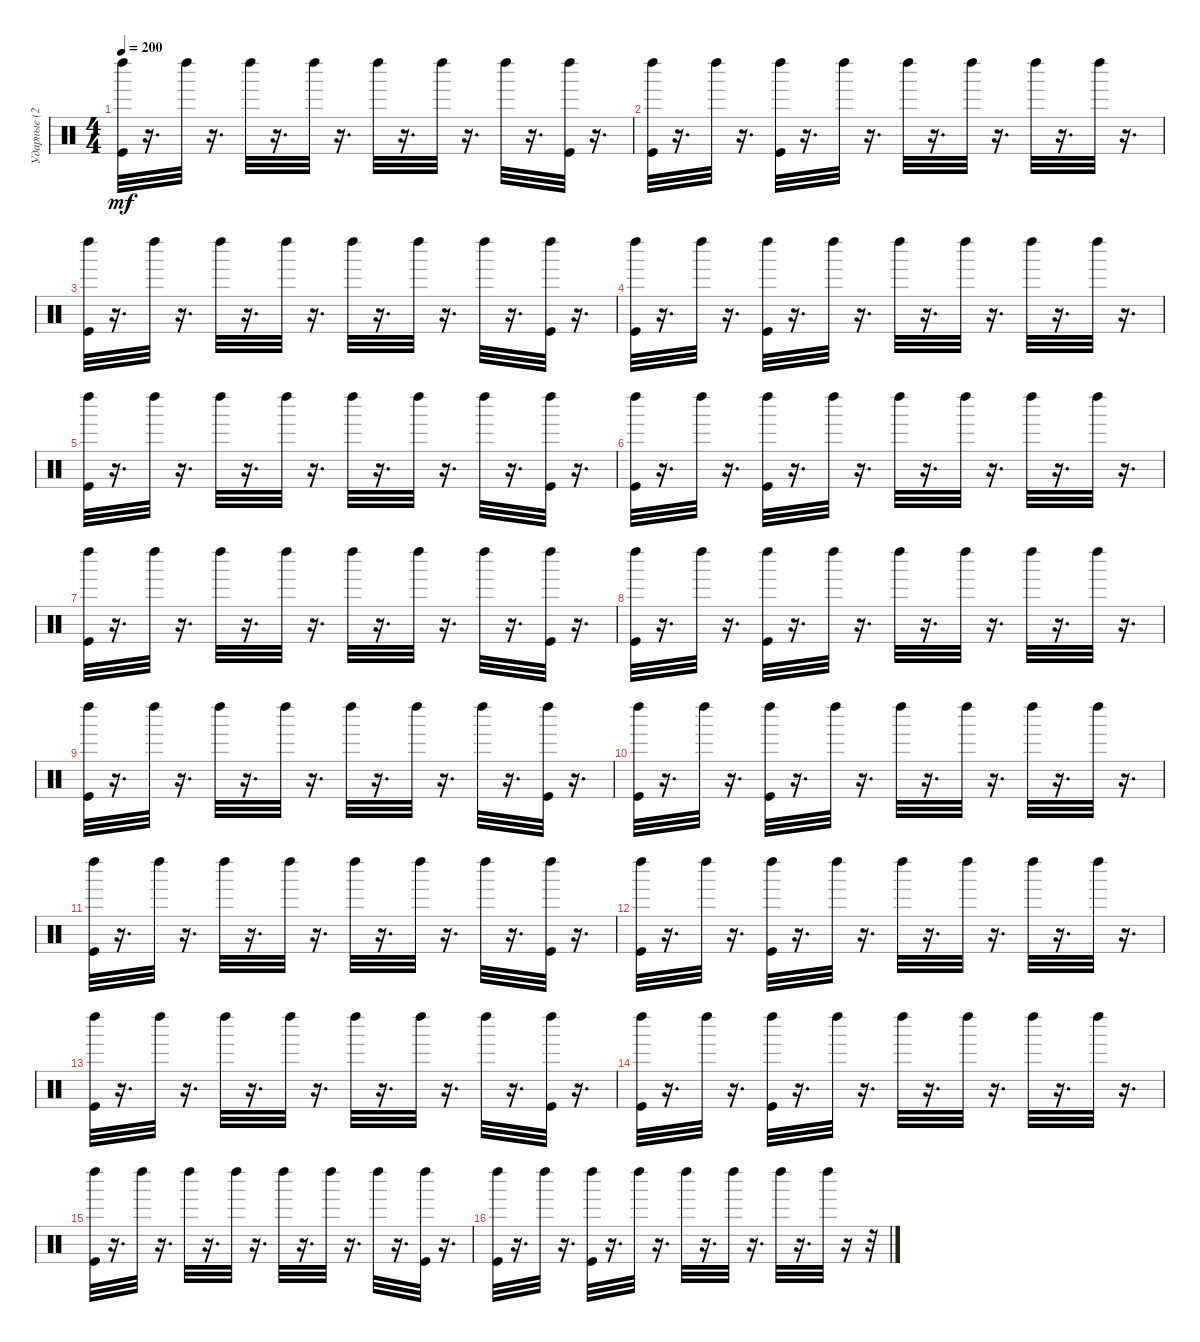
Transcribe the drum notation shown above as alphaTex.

\track ("Ударные (2)" "Ударные (2") {instrument percussion}
\staff {score}
\articulation defaults
\ts (4 4)
\tempo 200
\clef neutral
\ks c
("Kick (hit)" "Left Maraca (hit)").32{dy mf} r.16{d} "Left Maraca (hit)".32 r.16{d} "Left Maraca (hit)".32 r.16{d} "Left Maraca (hit)".32 r.16{d} "Left Maraca (hit)".32 r.16{d} "Left Maraca (hit)".32 r.16{d} "Left Maraca (hit)".32 r.16{d} ("Kick (hit)" "Left Maraca (hit)").32 r.16{d} |
("Kick (hit)" "Left Maraca (hit)").32 r.16{d} "Left Maraca (hit)".32 r.16{d} ("Kick (hit)" "Left Maraca (hit)").32 r.16{d} "Left Maraca (hit)".32 r.16{d} "Left Maraca (hit)".32 r.16{d} "Left Maraca (hit)".32 r.16{d} "Left Maraca (hit)".32 r.16{d} "Left Maraca (hit)".32 r.16{d} |
("Kick (hit)" "Left Maraca (hit)").32 r.16{d} "Left Maraca (hit)".32 r.16{d} "Left Maraca (hit)".32 r.16{d} "Left Maraca (hit)".32 r.16{d} "Left Maraca (hit)".32 r.16{d} "Left Maraca (hit)".32 r.16{d} "Left Maraca (hit)".32 r.16{d} ("Kick (hit)" "Left Maraca (hit)").32 r.16{d} |
("Kick (hit)" "Left Maraca (hit)").32 r.16{d} "Left Maraca (hit)".32 r.16{d} ("Kick (hit)" "Left Maraca (hit)").32 r.16{d} "Left Maraca (hit)".32 r.16{d} "Left Maraca (hit)".32 r.16{d} "Left Maraca (hit)".32 r.16{d} "Left Maraca (hit)".32 r.16{d} "Left Maraca (hit)".32 r.16{d} |
("Kick (hit)" "Left Maraca (hit)").32 r.16{d} "Left Maraca (hit)".32 r.16{d} "Left Maraca (hit)".32 r.16{d} "Left Maraca (hit)".32 r.16{d} "Left Maraca (hit)".32 r.16{d} "Left Maraca (hit)".32 r.16{d} "Left Maraca (hit)".32 r.16{d} ("Kick (hit)" "Left Maraca (hit)").32 r.16{d} |
("Kick (hit)" "Left Maraca (hit)").32 r.16{d} "Left Maraca (hit)".32 r.16{d} ("Kick (hit)" "Left Maraca (hit)").32 r.16{d} "Left Maraca (hit)".32 r.16{d} "Left Maraca (hit)".32 r.16{d} "Left Maraca (hit)".32 r.16{d} "Left Maraca (hit)".32 r.16{d} "Left Maraca (hit)".32 r.16{d} |
("Kick (hit)" "Left Maraca (hit)").32 r.16{d} "Left Maraca (hit)".32 r.16{d} "Left Maraca (hit)".32 r.16{d} "Left Maraca (hit)".32 r.16{d} "Left Maraca (hit)".32 r.16{d} "Left Maraca (hit)".32 r.16{d} "Left Maraca (hit)".32 r.16{d} ("Kick (hit)" "Left Maraca (hit)").32 r.16{d} |
("Kick (hit)" "Left Maraca (hit)").32 r.16{d} "Left Maraca (hit)".32 r.16{d} ("Kick (hit)" "Left Maraca (hit)").32 r.16{d} "Left Maraca (hit)".32 r.16{d} "Left Maraca (hit)".32 r.16{d} "Left Maraca (hit)".32 r.16{d} "Left Maraca (hit)".32 r.16{d} "Left Maraca (hit)".32 r.16{d} |
("Kick (hit)" "Left Maraca (hit)").32 r.16{d} "Left Maraca (hit)".32 r.16{d} "Left Maraca (hit)".32 r.16{d} "Left Maraca (hit)".32 r.16{d} "Left Maraca (hit)".32 r.16{d} "Left Maraca (hit)".32 r.16{d} "Left Maraca (hit)".32 r.16{d} ("Kick (hit)" "Left Maraca (hit)").32 r.16{d} |
("Kick (hit)" "Left Maraca (hit)").32 r.16{d} "Left Maraca (hit)".32 r.16{d} ("Kick (hit)" "Left Maraca (hit)").32 r.16{d} "Left Maraca (hit)".32 r.16{d} "Left Maraca (hit)".32 r.16{d} "Left Maraca (hit)".32 r.16{d} "Left Maraca (hit)".32 r.16{d} "Left Maraca (hit)".32 r.16{d} |
("Kick (hit)" "Left Maraca (hit)").32 r.16{d} "Left Maraca (hit)".32 r.16{d} "Left Maraca (hit)".32 r.16{d} "Left Maraca (hit)".32 r.16{d} "Left Maraca (hit)".32 r.16{d} "Left Maraca (hit)".32 r.16{d} "Left Maraca (hit)".32 r.16{d} ("Kick (hit)" "Left Maraca (hit)").32 r.16{d} |
("Kick (hit)" "Left Maraca (hit)").32 r.16{d} "Left Maraca (hit)".32 r.16{d} ("Kick (hit)" "Left Maraca (hit)").32 r.16{d} "Left Maraca (hit)".32 r.16{d} "Left Maraca (hit)".32 r.16{d} "Left Maraca (hit)".32 r.16{d} "Left Maraca (hit)".32 r.16{d} "Left Maraca (hit)".32 r.16{d} |
("Kick (hit)" "Left Maraca (hit)").32 r.16{d} "Left Maraca (hit)".32 r.16{d} "Left Maraca (hit)".32 r.16{d} "Left Maraca (hit)".32 r.16{d} "Left Maraca (hit)".32 r.16{d} "Left Maraca (hit)".32 r.16{d} "Left Maraca (hit)".32 r.16{d} ("Kick (hit)" "Left Maraca (hit)").32 r.16{d} |
("Kick (hit)" "Left Maraca (hit)").32 r.16{d} "Left Maraca (hit)".32 r.16{d} ("Kick (hit)" "Left Maraca (hit)").32 r.16{d} "Left Maraca (hit)".32 r.16{d} "Left Maraca (hit)".32 r.16{d} "Left Maraca (hit)".32 r.16{d} "Left Maraca (hit)".32 r.16{d} "Left Maraca (hit)".32 r.16{d} |
("Kick (hit)" "Left Maraca (hit)").32 r.16{d} "Left Maraca (hit)".32 r.16{d} "Left Maraca (hit)".32 r.16{d} "Left Maraca (hit)".32 r.16{d} "Left Maraca (hit)".32 r.16{d} "Left Maraca (hit)".32 r.16{d} "Left Maraca (hit)".32 r.16{d} ("Kick (hit)" "Left Maraca (hit)").32 r.16{d} |
("Kick (hit)" "Left Maraca (hit)").32 r.16{d} "Left Maraca (hit)".32 r.16{d} ("Kick (hit)" "Left Maraca (hit)").32 r.16{d} "Left Maraca (hit)".32 r.16{d} "Left Maraca (hit)".32 r.16{d} "Left Maraca (hit)".32 r.16{d} "Left Maraca (hit)".32 r.16{d} "Left Maraca (hit)".32 r.16 r.32
